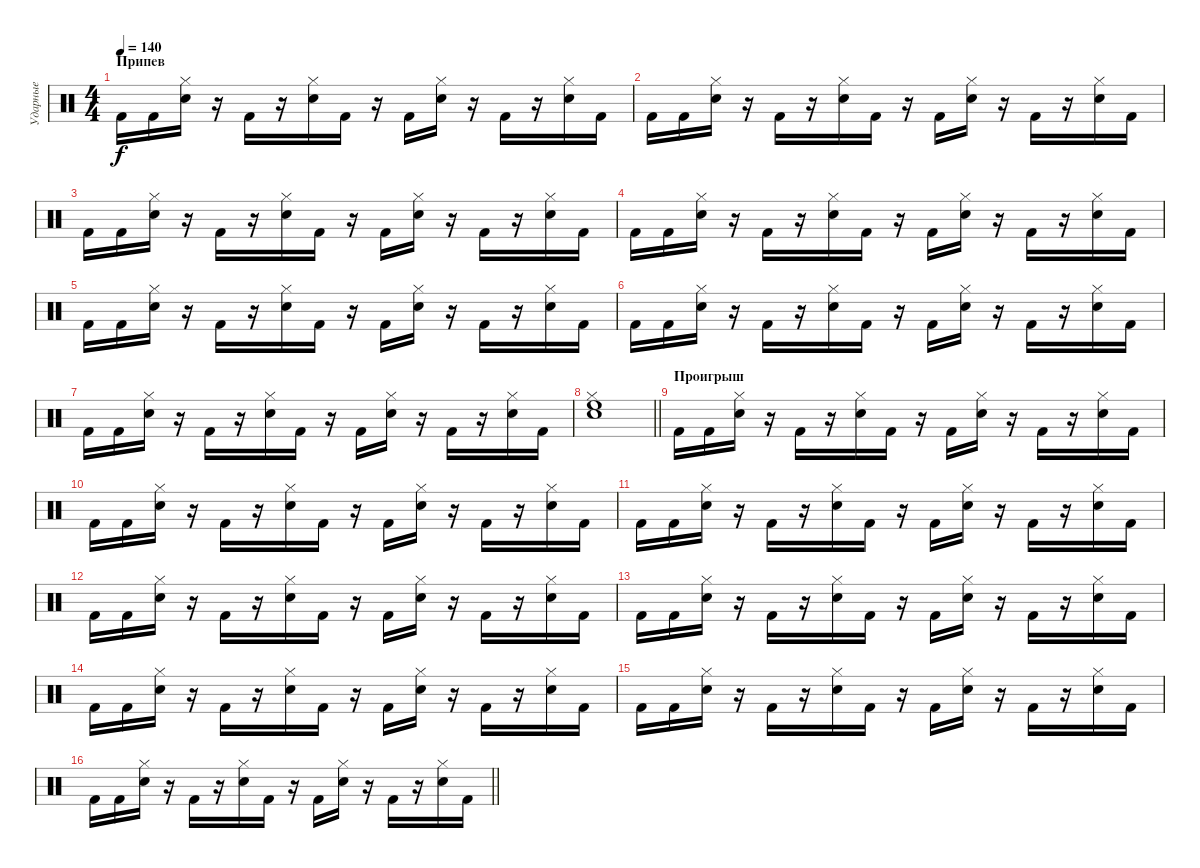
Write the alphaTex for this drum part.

\track ("Ударные" "Ударные") {instrument percussion}
\staff {score}
\articulation defaults
\ts (4 4)
\section ("" "Припев")
\tempo 140
\clef neutral
\ks c "Kick (hit) 2".16{dy f} "Kick (hit) 2".16
("Snare (hit) 2" "Hi-Hat (closed)").16 r.16 "Kick (hit) 2".16 r.16 ("Snare (hit) 2" "Hi-Hat (closed)").16 "Kick (hit) 2".16 r.16 "Kick (hit) 2".16 ("Snare (hit) 2" "Hi-Hat (closed)").16 r.16 "Kick (hit) 2".16 r.16 ("Snare (hit) 2" "Hi-Hat (closed)").16 "Kick (hit) 2".16 |
"Kick (hit) 2".16 "Kick (hit) 2".16 ("Snare (hit) 2" "Hi-Hat (closed)").16 r.16 "Kick (hit) 2".16 r.16 ("Snare (hit) 2" "Hi-Hat (closed)").16 "Kick (hit) 2".16 r.16 "Kick (hit) 2".16 ("Snare (hit) 2" "Hi-Hat (closed)").16 r.16 "Kick (hit) 2".16 r.16 ("Snare (hit) 2" "Hi-Hat (closed)").16 "Kick (hit) 2".16 |
"Kick (hit) 2".16 "Kick (hit) 2".16 ("Snare (hit) 2" "Hi-Hat (closed)").16 r.16 "Kick (hit) 2".16 r.16 ("Snare (hit) 2" "Hi-Hat (closed)").16 "Kick (hit) 2".16 r.16 "Kick (hit) 2".16 ("Snare (hit) 2" "Hi-Hat (closed)").16 r.16 "Kick (hit) 2".16 r.16 ("Snare (hit) 2" "Hi-Hat (closed)").16 "Kick (hit) 2".16 |
"Kick (hit) 2".16{volume 14} "Kick (hit) 2".16 ("Snare (hit) 2" "Hi-Hat (closed)").16 r.16 "Kick (hit) 2".16 r.16 ("Snare (hit) 2" "Hi-Hat (closed)").16 "Kick (hit) 2".16 r.16 "Kick (hit) 2".16 ("Snare (hit) 2" "Hi-Hat (closed)").16 r.16 "Kick (hit) 2".16 r.16 ("Snare (hit) 2" "Hi-Hat (closed)").16 "Kick (hit) 2".16 |
"Kick (hit) 2".16{volume 14} "Kick (hit) 2".16 ("Snare (hit) 2" "Hi-Hat (closed)").16 r.16 "Kick (hit) 2".16 r.16 ("Snare (hit) 2" "Hi-Hat (closed)").16 "Kick (hit) 2".16 r.16 "Kick (hit) 2".16 ("Snare (hit) 2" "Hi-Hat (closed)").16 r.16 "Kick (hit) 2".16 r.16 ("Snare (hit) 2" "Hi-Hat (closed)").16 "Kick (hit) 2".16 |
"Kick (hit) 2".16{volume 14} "Kick (hit) 2".16 ("Snare (hit) 2" "Hi-Hat (closed)").16 r.16 "Kick (hit) 2".16 r.16 ("Snare (hit) 2" "Hi-Hat (closed)").16 "Kick (hit) 2".16 r.16 "Kick (hit) 2".16 ("Snare (hit) 2" "Hi-Hat (closed)").16 r.16 "Kick (hit) 2".16 r.16 ("Snare (hit) 2" "Hi-Hat (closed)").16 "Kick (hit) 2".16 |
"Kick (hit) 2".16{volume 14} "Kick (hit) 2".16 ("Snare (hit) 2" "Hi-Hat (closed)").16 r.16 "Kick (hit) 2".16 r.16 ("Snare (hit) 2" "Hi-Hat (closed)").16 "Kick (hit) 2".16 r.16 "Kick (hit) 2".16 ("Snare (hit) 2" "Hi-Hat (closed)").16 r.16 "Kick (hit) 2".16 r.16 ("Snare (hit) 2" "Hi-Hat (closed)").16 "Kick (hit) 2".16 |
\barLineRight lightlight
("High Floor Tom (hit)" "Snare (hit) 2" "Hi-Hat (closed)").1 |
\section ("" "Проигрыш")
"Kick (hit) 2".16{volume 16} "Kick (hit) 2".16 ("Snare (hit) 2" "Hi-Hat (closed)").16 r.16 "Kick (hit) 2".16 r.16 ("Snare (hit) 2" "Hi-Hat (closed)").16 "Kick (hit) 2".16 r.16 "Kick (hit) 2".16 ("Snare (hit) 2" "Hi-Hat (closed)").16 r.16 "Kick (hit) 2".16 r.16 ("Snare (hit) 2" "Hi-Hat (closed)").16 "Kick (hit) 2".16 |
"Kick (hit) 2".16 "Kick (hit) 2".16 ("Snare (hit) 2" "Hi-Hat (closed)").16 r.16 "Kick (hit) 2".16 r.16 ("Snare (hit) 2" "Hi-Hat (closed)").16 "Kick (hit) 2".16 r.16 "Kick (hit) 2".16 ("Snare (hit) 2" "Hi-Hat (closed)").16 r.16 "Kick (hit) 2".16 r.16 ("Snare (hit) 2" "Hi-Hat (closed)").16 "Kick (hit) 2".16 |
"Kick (hit) 2".16 "Kick (hit) 2".16 ("Snare (hit) 2" "Hi-Hat (closed)").16 r.16 "Kick (hit) 2".16 r.16 ("Snare (hit) 2" "Hi-Hat (closed)").16 "Kick (hit) 2".16 r.16 "Kick (hit) 2".16 ("Snare (hit) 2" "Hi-Hat (closed)").16 r.16 "Kick (hit) 2".16 r.16 ("Snare (hit) 2" "Hi-Hat (closed)").16 "Kick (hit) 2".16 |
"Kick (hit) 2".16 "Kick (hit) 2".16 ("Snare (hit) 2" "Hi-Hat (closed)").16 r.16 "Kick (hit) 2".16 r.16 ("Snare (hit) 2" "Hi-Hat (closed)").16 "Kick (hit) 2".16 r.16 "Kick (hit) 2".16 ("Snare (hit) 2" "Hi-Hat (closed)").16 r.16 "Kick (hit) 2".16 r.16 ("Snare (hit) 2" "Hi-Hat (closed)").16 "Kick (hit) 2".16 |
"Kick (hit) 2".16 "Kick (hit) 2".16 ("Snare (hit) 2" "Hi-Hat (closed)").16 r.16 "Kick (hit) 2".16 r.16 ("Snare (hit) 2" "Hi-Hat (closed)").16 "Kick (hit) 2".16 r.16 "Kick (hit) 2".16 ("Snare (hit) 2" "Hi-Hat (closed)").16 r.16 "Kick (hit) 2".16 r.16 ("Snare (hit) 2" "Hi-Hat (closed)").16 "Kick (hit) 2".16 |
"Kick (hit) 2".16 "Kick (hit) 2".16 ("Snare (hit) 2" "Hi-Hat (closed)").16 r.16 "Kick (hit) 2".16 r.16 ("Snare (hit) 2" "Hi-Hat (closed)").16 "Kick (hit) 2".16 r.16 "Kick (hit) 2".16 ("Snare (hit) 2" "Hi-Hat (closed)").16 r.16 "Kick (hit) 2".16 r.16 ("Snare (hit) 2" "Hi-Hat (closed)").16 "Kick (hit) 2".16 |
"Kick (hit) 2".16 "Kick (hit) 2".16 ("Snare (hit) 2" "Hi-Hat (closed)").16 r.16 "Kick (hit) 2".16 r.16 ("Snare (hit) 2" "Hi-Hat (closed)").16 "Kick (hit) 2".16 r.16 "Kick (hit) 2".16 ("Snare (hit) 2" "Hi-Hat (closed)").16 r.16 "Kick (hit) 2".16 r.16 ("Snare (hit) 2" "Hi-Hat (closed)").16 "Kick (hit) 2".16 |
\barLineRight lightlight "Kick (hit) 2".16 "Kick (hit) 2".16
("Snare (hit) 2" "Hi-Hat (closed)").16 r.16 "Kick (hit) 2".16 r.16 ("Snare (hit) 2" "Hi-Hat (closed)").16 "Kick (hit) 2".16 r.16 "Kick (hit) 2".16 ("Snare (hit) 2" "Hi-Hat (closed)").16 r.16 "Kick (hit) 2".16 r.16 ("Snare (hit) 2" "Hi-Hat (closed)").16 "Kick (hit) 2".16
